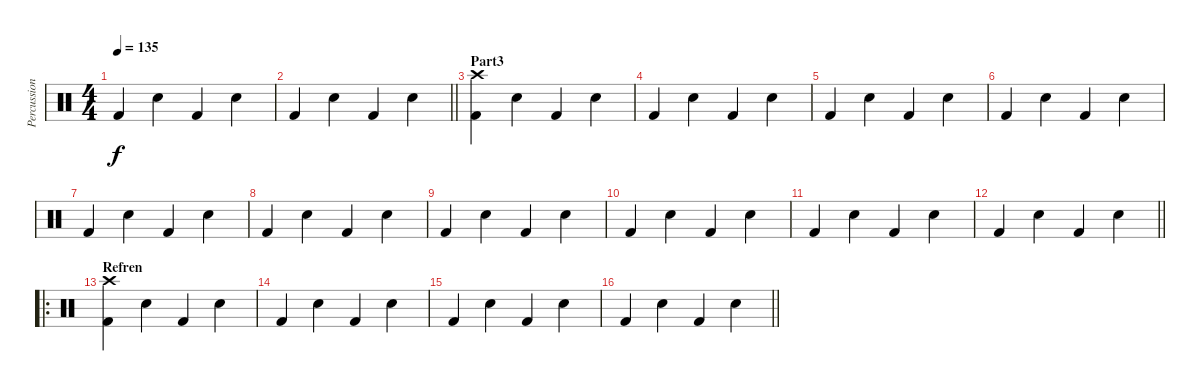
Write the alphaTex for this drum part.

\track ("Percussion" "Percussion") {instrument percussion}
\staff
\articulation defaults
\ts (4 4)
\tempo 135
\clef neutral
\ks c "Kick (hit) 2".4{dy f} "Snare (hit) 2".4 "Kick (hit) 2".4 "Snare (hit) 2".4
|
\barLineRight lightlight "Kick (hit) 2".4 "Snare (hit) 2".4 "Kick (hit) 2".4 "Snare (hit) 2".4
|
\section ("" "Part3")
("Crash high (hit)" "Kick (hit) 2").4 "Snare (hit) 2".4 "Kick (hit) 2".4 "Snare (hit) 2".4 |
"Kick (hit) 2".4 "Snare (hit) 2".4 "Kick (hit) 2".4 "Snare (hit) 2".4 |
"Kick (hit) 2".4 "Snare (hit) 2".4 "Kick (hit) 2".4 "Snare (hit) 2".4 |
"Kick (hit) 2".4 "Snare (hit) 2".4 "Kick (hit) 2".4 "Snare (hit) 2".4 |
"Kick (hit) 2".4 "Snare (hit) 2".4 "Kick (hit) 2".4 "Snare (hit) 2".4 |
"Kick (hit) 2".4 "Snare (hit) 2".4 "Kick (hit) 2".4 "Snare (hit) 2".4 |
"Kick (hit) 2".4 "Snare (hit) 2".4 "Kick (hit) 2".4 "Snare (hit) 2".4 |
"Kick (hit) 2".4 "Snare (hit) 2".4 "Kick (hit) 2".4 "Snare (hit) 2".4 |
"Kick (hit) 2".4 "Snare (hit) 2".4 "Kick (hit) 2".4 "Snare (hit) 2".4 |
\barLineRight lightlight "Kick (hit) 2".4 "Snare (hit) 2".4 "Kick (hit) 2".4 "Snare (hit) 2".4
|
\ro
\section ("" "Refren")
("Crash high (hit)" "Kick (hit) 2").4 "Snare (hit) 2".4 "Kick (hit) 2".4 "Snare (hit) 2".4 |
"Kick (hit) 2".4 "Snare (hit) 2".4 "Kick (hit) 2".4 "Snare (hit) 2".4 |
"Kick (hit) 2".4 "Snare (hit) 2".4 "Kick (hit) 2".4 "Snare (hit) 2".4 |
\barLineRight lightlight "Kick (hit) 2".4 "Snare (hit) 2".4 "Kick (hit) 2".4 "Snare (hit) 2".4
